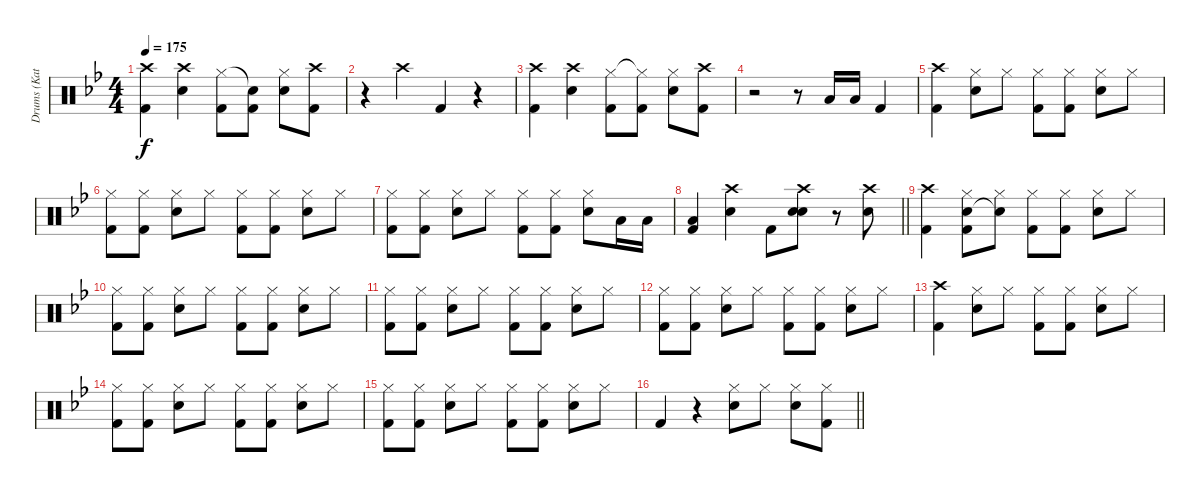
\track ("Drums (Katsuji)" "Drums (Kat") {instrument percussion}
\staff {score}
\articulation defaults
\ts (4 4)
\tempo 175
\clef neutral
\ks bb
("Crash high (hit)" "Kick (hit) 2").4{dy f} ("Crash high (hit)" "Snare (hit) 2").4 ("Hi-Hat (closed)" "Kick (hit) 2").8 ("Snare (hit)"{t} "Kick (hit) 2").8 ("Hi-Hat (closed)" "Snare (hit) 2").8 ("Crash high (hit)" "Kick (hit) 2").8 |
r.4 "Crash high (hit)".4 "Kick (hit) 2".4 r.4 |
("Crash high (hit)" "Kick (hit) 2").4 ("Crash high (hit)" "Snare (hit) 2").4 ("Hi-Hat (closed)" "Kick (hit) 2").8 ("Hi-Hat (closed)"{t} "Kick (hit) 2").8 ("Hi-Hat (closed)" "Snare (hit) 2").8 ("Crash high (hit)" "Kick (hit) 2").8 |
r.2 r.8 "Low Tom (hit)".16 "Low Tom (hit)".16 "Kick (hit) 2".4 |
("Crash high (hit)" "Kick (hit) 2").4 ("Hi-Hat (closed)" "Snare (hit) 2").8 "Hi-Hat (closed)".8 ("Hi-Hat (closed)" "Kick (hit) 2").8 ("Hi-Hat (closed)" "Kick (hit) 2").8 ("Hi-Hat (closed)" "Snare (hit) 2").8 "Hi-Hat (closed)".8 |
("Hi-Hat (closed)" "Kick (hit) 2").8 ("Hi-Hat (closed)" "Kick (hit) 2").8 ("Hi-Hat (closed)" "Snare (hit) 2").8 "Hi-Hat (closed)".8 ("Hi-Hat (closed)" "Kick (hit) 2").8 ("Hi-Hat (closed)" "Kick (hit) 2").8 ("Hi-Hat (closed)" "Snare (hit) 2").8 "Hi-Hat (closed)".8 |
("Hi-Hat (closed)" "Kick (hit) 2").8 ("Hi-Hat (closed)" "Kick (hit) 2").8 ("Hi-Hat (closed)" "Snare (hit) 2").8 "Hi-Hat (closed)".8 ("Hi-Hat (closed)" "Kick (hit) 2").8 ("Hi-Hat (closed)" "Kick (hit) 2").8 ("Hi-Hat (closed)" "Snare (hit) 2").8 "Low Tom (hit)".16 "Low Tom (hit)".16 |
\barLineRight lightlight
("Low Tom (hit)" "Kick (hit) 2").4 ("Crash high (hit)" "Snare (hit) 2").4 "Kick (hit) 2".8 ("Crash high (hit)" "Snare (hit) 2" "Snare (hit)").8 r.8 ("Crash high (hit)" "Snare (hit) 2").8 |
("Crash high (hit)" "Kick (hit) 2").4 ("Hi-Hat (closed)" "Snare (hit) 2" "Kick (hit) 2").8 ("Hi-Hat (closed)" "Snare (hit)"{t}).8 ("Hi-Hat (closed)" "Kick (hit) 2").8 ("Hi-Hat (closed)" "Kick (hit) 2").8 ("Hi-Hat (closed)" "Snare (hit) 2").8 "Hi-Hat (closed)".8 |
("Hi-Hat (closed)" "Kick (hit) 2").8 ("Hi-Hat (closed)" "Kick (hit) 2").8 ("Hi-Hat (closed)" "Snare (hit) 2").8 "Hi-Hat (closed)".8 ("Hi-Hat (closed)" "Kick (hit) 2").8 ("Hi-Hat (closed)" "Kick (hit) 2").8 ("Hi-Hat (closed)" "Snare (hit) 2").8 "Hi-Hat (closed)".8 |
("Hi-Hat (closed)" "Kick (hit) 2").8 ("Hi-Hat (closed)" "Kick (hit) 2").8 ("Hi-Hat (closed)" "Snare (hit) 2").8 "Hi-Hat (closed)".8 ("Hi-Hat (closed)" "Kick (hit) 2").8 ("Hi-Hat (closed)" "Kick (hit) 2").8 ("Hi-Hat (closed)" "Snare (hit) 2").8 "Hi-Hat (closed)".8 |
("Hi-Hat (closed)" "Kick (hit) 2").8 ("Hi-Hat (closed)" "Kick (hit) 2").8 ("Hi-Hat (closed)" "Snare (hit) 2").8 "Hi-Hat (closed)".8 ("Hi-Hat (closed)" "Kick (hit) 2").8 ("Hi-Hat (closed)" "Kick (hit) 2").8 ("Hi-Hat (closed)" "Snare (hit) 2").8 "Hi-Hat (closed)".8 |
("Crash high (hit)" "Kick (hit) 2").4 ("Hi-Hat (closed)" "Snare (hit) 2").8 "Hi-Hat (closed)".8 ("Hi-Hat (closed)" "Kick (hit) 2").8 ("Hi-Hat (closed)" "Kick (hit) 2").8 ("Hi-Hat (closed)" "Snare (hit) 2").8 "Hi-Hat (closed)".8 |
("Hi-Hat (closed)" "Kick (hit) 2").8 ("Hi-Hat (closed)" "Kick (hit) 2").8 ("Hi-Hat (closed)" "Snare (hit) 2").8 "Hi-Hat (closed)".8 ("Hi-Hat (closed)" "Kick (hit) 2").8 ("Hi-Hat (closed)" "Kick (hit) 2").8 ("Hi-Hat (closed)" "Snare (hit) 2").8 "Hi-Hat (closed)".8 |
("Hi-Hat (closed)" "Kick (hit) 2").8 ("Hi-Hat (closed)" "Kick (hit) 2").8 ("Hi-Hat (closed)" "Snare (hit) 2").8 "Hi-Hat (closed)".8 ("Hi-Hat (closed)" "Kick (hit) 2").8 ("Hi-Hat (closed)" "Kick (hit) 2").8 ("Hi-Hat (closed)" "Snare (hit) 2").8 "Hi-Hat (closed)".8 |
\barLineRight lightlight "Kick (hit) 2".4
r.4 ("Hi-Hat (closed)" "Snare (hit) 2").8 "Hi-Hat (closed)".8 ("Hi-Hat (closed)" "Snare (hit) 2").8 ("Hi-Hat (closed)" "Kick (hit) 2").8
